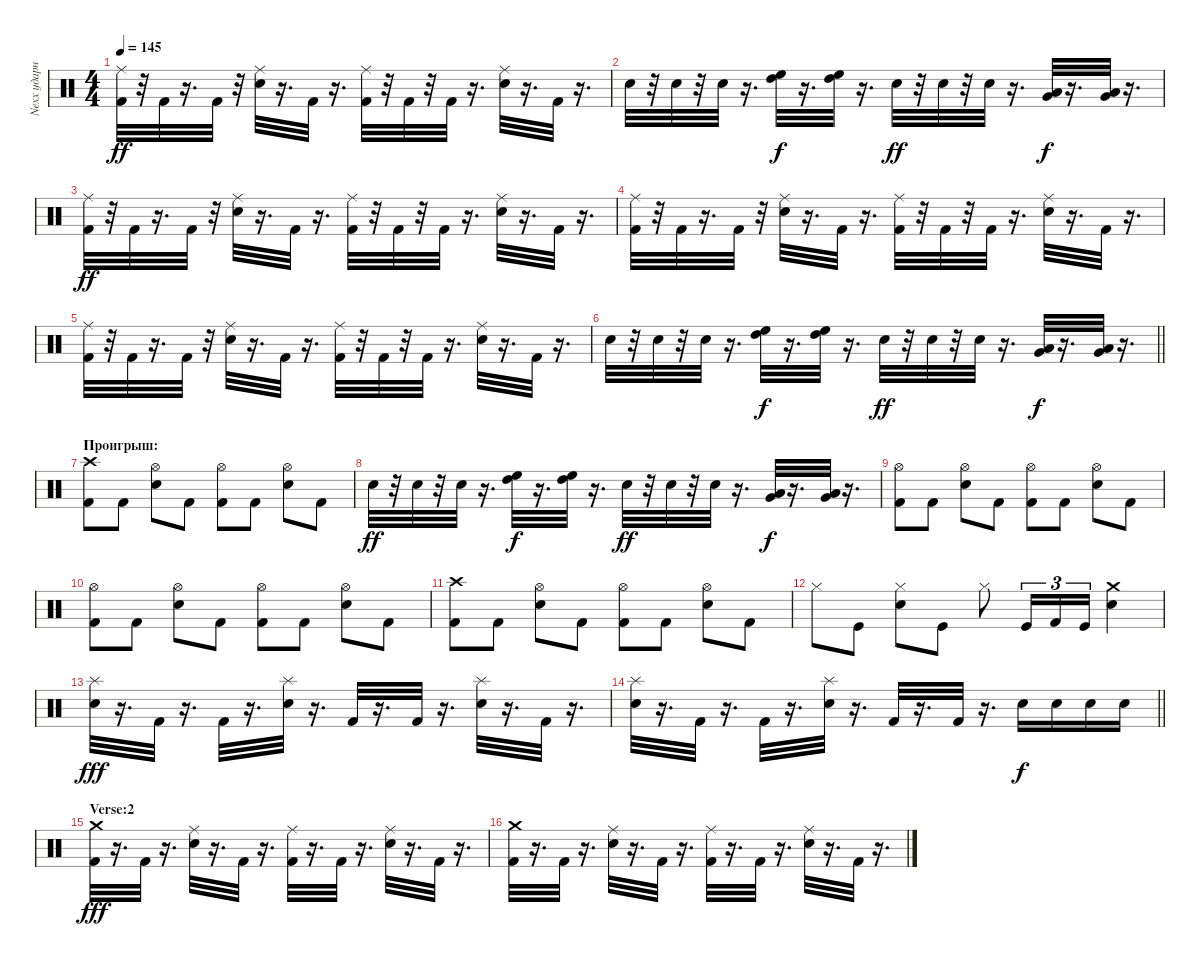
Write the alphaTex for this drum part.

\track ("Nexx ударные" "Nexx ударн") {instrument percussion}
\staff {score}
\articulation defaults
\ts (4 4)
\tempo 145
\clef neutral
\ks c
("Ride (middle)" "Kick (hit) 2").32{dy ff} r.32 "Kick (hit) 2".32 r.16{d} "Kick (hit) 2".32 r.32 ("Ride (middle)" "Electric Snare (hit)").32 r.16{d} "Kick (hit) 2".32 r.16{d} ("Ride (middle)" "Kick (hit) 2").32 r.32 "Kick (hit) 2".32 r.32 "Kick (hit) 2".32 r.16{d} ("Ride (middle)" "Electric Snare (hit)").32 r.16{d} "Kick (hit) 2".32 r.16{d} |
"Snare (hit) 2".32 r.32 "Snare (hit) 2".32 r.32 "Snare (hit) 2".32 r.16{d} ("High Floor Tom (hit)" "High Tom (hit)").32{dy f} r.16{d} ("High Tom (hit)" "High Floor Tom (hit)").32 r.16{d} "Snare (hit) 2".32{dy ff} r.32 "Snare (hit) 2".32 r.32 "Snare (hit) 2".32 r.16{d} ("Very Low Tom (hit)" "Low Tom (hit)").32{dy f} r.16{d} ("Very Low Tom (hit)" "Low Tom (hit)").32 r.16{d} |
("Ride (middle)" "Kick (hit) 2").32{dy ff} r.32 "Kick (hit) 2".32 r.16{d} "Kick (hit) 2".32 r.32 ("Ride (middle)" "Electric Snare (hit)").32 r.16{d} "Kick (hit) 2".32 r.16{d} ("Ride (middle)" "Kick (hit) 2").32 r.32 "Kick (hit) 2".32 r.32 "Kick (hit) 2".32 r.16{d} ("Ride (middle)" "Electric Snare (hit)").32 r.16{d} "Kick (hit) 2".32 r.16{d} |
("Ride (middle)" "Kick (hit) 2").32 r.32 "Kick (hit) 2".32 r.16{d} "Kick (hit) 2".32 r.32 ("Ride (middle)" "Electric Snare (hit)").32 r.16{d} "Kick (hit) 2".32 r.16{d} ("Ride (middle)" "Kick (hit) 2").32 r.32 "Kick (hit) 2".32 r.32 "Kick (hit) 2".32 r.16{d} ("Ride (middle)" "Electric Snare (hit)").32 r.16{d} "Kick (hit) 2".32 r.16{d} |
("Ride (middle)" "Kick (hit) 2").32 r.32 "Kick (hit) 2".32 r.16{d} "Kick (hit) 2".32 r.32 ("Ride (middle)" "Electric Snare (hit)").32 r.16{d} "Kick (hit) 2".32 r.16{d} ("Ride (middle)" "Kick (hit) 2").32 r.32 "Kick (hit) 2".32 r.32 "Kick (hit) 2".32 r.16{d} ("Ride (middle)" "Electric Snare (hit)").32 r.16{d} "Kick (hit) 2".32 r.16{d} |
\barLineRight lightlight "Snare (hit) 2".32
r.32 "Snare (hit) 2".32 r.32 "Snare (hit) 2".32 r.16{d} ("High Floor Tom (hit)" "High Tom (hit)").32{dy f} r.16{d} ("High Tom (hit)" "High Floor Tom (hit)").32 r.16{d} "Snare (hit) 2".32{dy ff} r.32 "Snare (hit) 2".32 r.32 "Snare (hit) 2".32 r.16{d} ("Very Low Tom (hit)" "Low Tom (hit)").32{dy f} r.16{d} ("Very Low Tom (hit)" "Low Tom (hit)").32 r.16{d} |
\section ("" "Проигрыш:")
("Crash high (hit)" "Kick (hit) 2").8 "Kick (hit) 2".8 ("Snare (hit) 2" "Hi-Hat (open)").8 "Kick (hit) 2".8 ("Hi-Hat (open)" "Kick (hit) 2").8 "Kick (hit) 2".8 ("Snare (hit) 2" "Hi-Hat (open)").8 "Kick (hit) 2".8 |
"Snare (hit) 2".32{dy ff} r.32 "Snare (hit) 2".32 r.32 "Snare (hit) 2".32 r.16{d} ("High Floor Tom (hit)" "High Tom (hit)").32{dy f} r.16{d} ("High Tom (hit)" "High Floor Tom (hit)").32 r.16{d} "Snare (hit) 2".32{dy ff} r.32 "Snare (hit) 2".32 r.32 "Snare (hit) 2".32 r.16{d} ("Very Low Tom (hit)" "Low Tom (hit)").32{dy f} r.16{d} ("Very Low Tom (hit)" "Low Tom (hit)").32 r.16{d} |
("Hi-Hat (open)" "Kick (hit) 2").8 "Kick (hit) 2".8 ("Snare (hit) 2" "Hi-Hat (open)").8 "Kick (hit) 2".8 ("Hi-Hat (open)" "Kick (hit) 2").8 "Kick (hit) 2".8 ("Snare (hit) 2" "Hi-Hat (open)").8 "Kick (hit) 2".8 |
("Hi-Hat (open)" "Kick (hit) 2").8 "Kick (hit) 2".8 ("Snare (hit) 2" "Hi-Hat (open)").8 "Kick (hit) 2".8 ("Hi-Hat (open)" "Kick (hit) 2").8 "Kick (hit) 2".8 ("Snare (hit) 2" "Hi-Hat (open)").8 "Kick (hit) 2".8 |
("Crash high (hit)" "Kick (hit) 2").8 "Kick (hit) 2".8 ("Snare (hit) 2" "Hi-Hat (open)").8 "Kick (hit) 2".8 ("Hi-Hat (open)" "Kick (hit) 2").8 "Kick (hit) 2".8 ("Snare (hit) 2" "Hi-Hat (open)").8 "Kick (hit) 2".8 |
"Hi-Hat (closed)".8 "Kick (hit)".8 ("Snare (hit) 2" "Hi-Hat (closed)").8 "Kick (hit)".8 "Hi-Hat (closed)".8 "Kick (hit)".16{tu (3 2)} "Kick (hit) 2".16{tu (3 2)} "Kick (hit)".16{tu (3 2)} ("Crash medium (hit)" "Snare (hit) 2").4 |
("Snare (hit) 2" "Splash (hit)").32{dy fff} r.16{d} "Kick (hit) 2".32 r.16{d} "Kick (hit) 2".32 r.16{d} ("Splash (hit)" "Snare (hit) 2").32 r.16{d} "Kick (hit) 2".32 r.16{d} "Kick (hit) 2".32 r.16{d} ("Splash (hit)" "Snare (hit) 2").32 r.16{d} "Kick (hit) 2".32 r.16{d} |
\barLineRight lightlight
("Snare (hit) 2" "Splash (hit)").32 r.16{d} "Kick (hit) 2".32 r.16{d} "Kick (hit) 2".32 r.16{d} ("Splash (hit)" "Snare (hit) 2").32 r.16{d} "Kick (hit) 2".32 r.16{d} "Kick (hit) 2".32 r.16{d} "Snare (hit) 2".16{dy f} "Snare (hit) 2".16 "Snare (hit) 2".16 "Snare (hit) 2".16 |
\section ("" "Verse:2")
("Crash medium (hit)" "Kick (hit) 2").32{dy fff} r.16{d} "Kick (hit) 2".32 r.16{d} ("Ride (middle)" "Snare (hit) 2").32 r.16{d} "Kick (hit) 2".32 r.16{d} ("Kick (hit) 2" "Ride (middle)").32 r.16{d} "Kick (hit) 2".32 r.16{d} ("Snare (hit) 2" "Ride (middle)").32 r.16{d} "Kick (hit) 2".32 r.16{d} |
("Crash medium (hit)" "Kick (hit) 2").32 r.16{d} "Kick (hit) 2".32 r.16{d} ("Ride (middle)" "Snare (hit) 2").32 r.16{d} "Kick (hit) 2".32 r.16{d} ("Kick (hit) 2" "Ride (middle)").32 r.16{d} "Kick (hit) 2".32 r.16{d} ("Snare (hit) 2" "Ride (middle)").32 r.16{d} "Kick (hit) 2".32 r.16{d}
